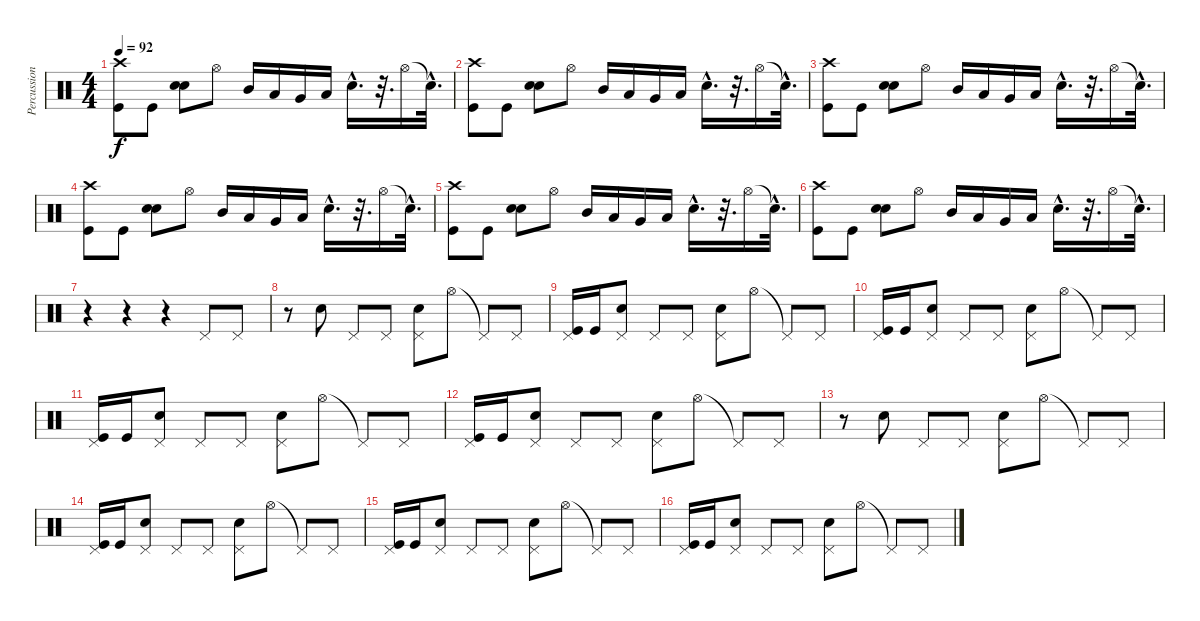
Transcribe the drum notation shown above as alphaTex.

\track ("Percussions (Etn)" "Percussion") {instrument percussion}
\staff {score}
\articulation defaults
\ts (4 4)
\tempo 92
\clef neutral
\ks c
("Crash high (hit)" "Kick (hit)").8{dy f} "Kick (hit)".8 ("Snare (hit) 2" "Electric Snare (hit)").8{bd 120} "Hi-Hat (open)".8 "Mid Tom (hit)".16 "Low Tom (hit)".16 "Very Low Tom (hit)".16 "Low Floor Tom (hit)".16 "Electric Snare (hit)"{hac}.16{d} r.32{d} "Hi-Hat (open)".16 "Snare (hit)"{hac t}.32{d} |
("Crash high (hit)" "Kick (hit)").8 "Kick (hit)".8 ("Snare (hit) 2" "Electric Snare (hit)").8{bd 120} "Hi-Hat (open)".8 "Mid Tom (hit)".16 "Low Tom (hit)".16 "Very Low Tom (hit)".16 "Low Floor Tom (hit)".16 "Electric Snare (hit)"{hac}.16{d} r.32{d} "Hi-Hat (open)".16 "Snare (hit)"{hac t}.32{d} |
("Crash high (hit)" "Kick (hit)").8 "Kick (hit)".8 ("Snare (hit) 2" "Electric Snare (hit)").8{bd 120} "Hi-Hat (open)".8 "Mid Tom (hit)".16 "Low Tom (hit)".16 "Very Low Tom (hit)".16 "Low Floor Tom (hit)".16 "Electric Snare (hit)"{hac}.16{d} r.32{d} "Hi-Hat (open)".16 "Snare (hit)"{hac t}.32{d} |
("Crash high (hit)" "Kick (hit)").8 "Kick (hit)".8 ("Snare (hit) 2" "Electric Snare (hit)").8{bd 120} "Hi-Hat (open)".8 "Mid Tom (hit)".16 "Low Tom (hit)".16 "Very Low Tom (hit)".16 "Low Floor Tom (hit)".16 "Electric Snare (hit)"{hac}.16{d} r.32{d} "Hi-Hat (open)".16 "Snare (hit)"{hac t}.32{d} |
("Crash high (hit)" "Kick (hit)").8 "Kick (hit)".8 ("Snare (hit) 2" "Electric Snare (hit)").8{bd 120} "Hi-Hat (open)".8 "Mid Tom (hit)".16 "Low Tom (hit)".16 "Very Low Tom (hit)".16 "Low Floor Tom (hit)".16 "Electric Snare (hit)"{hac}.16{d} r.32{d} "Hi-Hat (open)".16 "Snare (hit)"{hac t}.32{d} |
("Crash high (hit)" "Kick (hit)").8 "Kick (hit)".8 ("Snare (hit) 2" "Electric Snare (hit)").8{bd 120} "Hi-Hat (open)".8 "Mid Tom (hit)".16 "Low Tom (hit)".16 "Very Low Tom (hit)".16 "Low Floor Tom (hit)".16 "Electric Snare (hit)"{hac}.16{d} r.32{d} "Hi-Hat (open)".16 "Snare (hit)"{hac t}.32{d} |
r.4 r.4 r.4 "Pedal Hi-Hat (hit)".8 "Pedal Hi-Hat (hit)".8 |
r.8 "Electric Snare (hit)".8 "Pedal Hi-Hat (hit)".8 "Pedal Hi-Hat (hit)".8 ("Pedal Hi-Hat (hit)" "Electric Snare (hit)").8 "Hi-Hat (open)".8 "Pedal Hi-Hat (hit)"{t}.8 "Pedal Hi-Hat (hit)".8 |
("Pedal Hi-Hat (hit)" "Kick (hit)").16 "Kick (hit)".16 ("Pedal Hi-Hat (hit)" "Electric Snare (hit)").8 "Pedal Hi-Hat (hit)".8 "Pedal Hi-Hat (hit)".8 ("Pedal Hi-Hat (hit)" "Electric Snare (hit)").8 "Hi-Hat (open)".8 "Pedal Hi-Hat (hit)"{t}.8 "Pedal Hi-Hat (hit)".8 |
("Pedal Hi-Hat (hit)" "Kick (hit)").16 "Kick (hit)".16 ("Pedal Hi-Hat (hit)" "Electric Snare (hit)").8 "Pedal Hi-Hat (hit)".8 "Pedal Hi-Hat (hit)".8 ("Pedal Hi-Hat (hit)" "Electric Snare (hit)").8 "Hi-Hat (open)".8 "Pedal Hi-Hat (hit)"{t}.8 "Pedal Hi-Hat (hit)".8 |
("Pedal Hi-Hat (hit)" "Kick (hit)").16 "Kick (hit)".16 ("Pedal Hi-Hat (hit)" "Electric Snare (hit)").8 "Pedal Hi-Hat (hit)".8 "Pedal Hi-Hat (hit)".8 ("Pedal Hi-Hat (hit)" "Electric Snare (hit)").8 "Hi-Hat (open)".8 "Pedal Hi-Hat (hit)"{t}.8 "Pedal Hi-Hat (hit)".8 |
("Pedal Hi-Hat (hit)" "Kick (hit)").16 "Kick (hit)".16 ("Pedal Hi-Hat (hit)" "Electric Snare (hit)").8 "Pedal Hi-Hat (hit)".8 "Pedal Hi-Hat (hit)".8 ("Pedal Hi-Hat (hit)" "Electric Snare (hit)").8 "Hi-Hat (open)".8 "Pedal Hi-Hat (hit)"{t}.8 "Pedal Hi-Hat (hit)".8 |
r.8 "Electric Snare (hit)".8 "Pedal Hi-Hat (hit)".8 "Pedal Hi-Hat (hit)".8 ("Pedal Hi-Hat (hit)" "Electric Snare (hit)").8 "Hi-Hat (open)".8 "Pedal Hi-Hat (hit)"{t}.8 "Pedal Hi-Hat (hit)".8 |
("Pedal Hi-Hat (hit)" "Kick (hit)").16 "Kick (hit)".16 ("Pedal Hi-Hat (hit)" "Electric Snare (hit)").8 "Pedal Hi-Hat (hit)".8 "Pedal Hi-Hat (hit)".8 ("Pedal Hi-Hat (hit)" "Electric Snare (hit)").8 "Hi-Hat (open)".8 "Pedal Hi-Hat (hit)"{t}.8 "Pedal Hi-Hat (hit)".8 |
("Pedal Hi-Hat (hit)" "Kick (hit)").16 "Kick (hit)".16 ("Pedal Hi-Hat (hit)" "Electric Snare (hit)").8 "Pedal Hi-Hat (hit)".8 "Pedal Hi-Hat (hit)".8 ("Pedal Hi-Hat (hit)" "Electric Snare (hit)").8 "Hi-Hat (open)".8 "Pedal Hi-Hat (hit)"{t}.8 "Pedal Hi-Hat (hit)".8 |
("Pedal Hi-Hat (hit)" "Kick (hit)").16 "Kick (hit)".16 ("Pedal Hi-Hat (hit)" "Electric Snare (hit)").8 "Pedal Hi-Hat (hit)".8 "Pedal Hi-Hat (hit)".8 ("Pedal Hi-Hat (hit)" "Electric Snare (hit)").8 "Hi-Hat (open)".8 "Pedal Hi-Hat (hit)"{t}.8 "Pedal Hi-Hat (hit)".8
